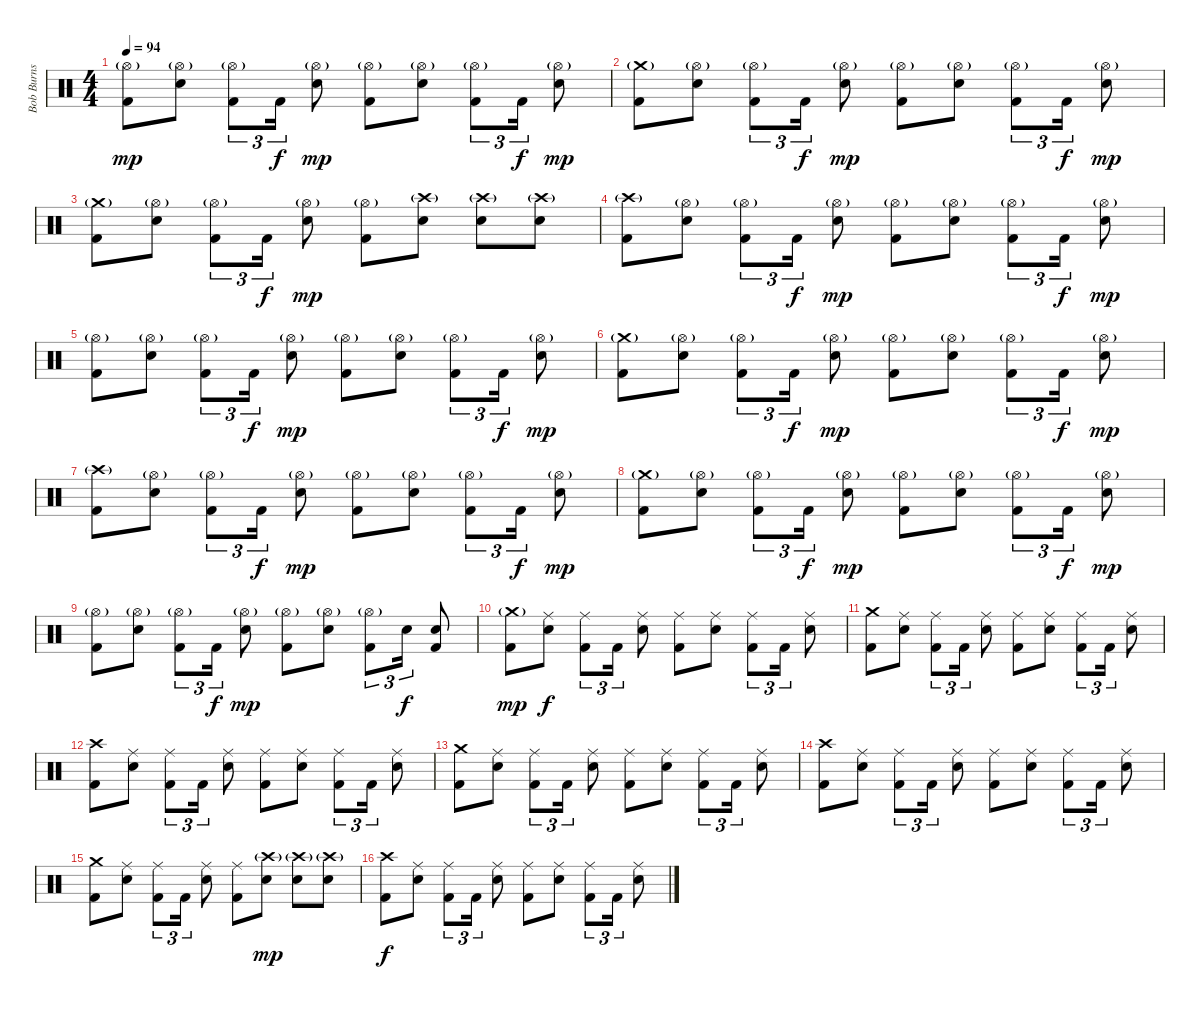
\track ("Bob Burns (drums)" "Bob Burns ") {instrument percussion}
\staff {score}
\articulation defaults
\ts (4 4)
\tempo 94
\clef neutral
\ks c
("Hi-Hat (open)"{g} "Kick (hit) 2").8{dy mp} ("Hi-Hat (open)"{g} "Electric Snare (hit)").8 ("Hi-Hat (open)"{g} "Kick (hit) 2").8{tu (3 2)} "Kick (hit) 2".16{tu (3 2) dy f} ("Hi-Hat (open)"{g} "Electric Snare (hit)").8{dy mp} ("Hi-Hat (open)"{g} "Kick (hit) 2").8 ("Hi-Hat (open)"{g} "Electric Snare (hit)").8 ("Hi-Hat (open)"{g} "Kick (hit) 2").8{tu (3 2)} "Kick (hit) 2".16{tu (3 2) dy f} ("Hi-Hat (open)"{g} "Electric Snare (hit)").8{dy mp} |
("Crash medium (hit)"{g} "Kick (hit) 2").8 ("Hi-Hat (open)"{g} "Electric Snare (hit)").8 ("Hi-Hat (open)"{g} "Kick (hit) 2").8{tu (3 2)} "Kick (hit) 2".16{tu (3 2) dy f} ("Hi-Hat (open)"{g} "Electric Snare (hit)").8{dy mp} ("Hi-Hat (open)"{g} "Kick (hit) 2").8 ("Hi-Hat (open)"{g} "Electric Snare (hit)").8 ("Hi-Hat (open)"{g} "Kick (hit) 2").8{tu (3 2)} "Kick (hit) 2".16{tu (3 2) dy f} ("Hi-Hat (open)"{g} "Electric Snare (hit)").8{dy mp} |
("Crash medium (hit)"{g} "Kick (hit) 2").8 ("Hi-Hat (open)"{g} "Electric Snare (hit)").8 ("Hi-Hat (open)"{g} "Kick (hit) 2").8{tu (3 2)} "Kick (hit) 2".16{tu (3 2) dy f} ("Hi-Hat (open)"{g} "Electric Snare (hit)").8{dy mp} ("Hi-Hat (open)"{g} "Kick (hit) 2").8 ("Crash high (hit)"{g} "Electric Snare (hit)").8 ("Crash high (hit)"{g} "Electric Snare (hit)").8 ("Crash high (hit)"{g} "Electric Snare (hit)").8 |
("Crash high (hit)"{g} "Kick (hit) 2").8 ("Hi-Hat (open)"{g} "Electric Snare (hit)").8 ("Hi-Hat (open)"{g} "Kick (hit) 2").8{tu (3 2)} "Kick (hit) 2".16{tu (3 2) dy f} ("Hi-Hat (open)"{g} "Electric Snare (hit)").8{dy mp} ("Hi-Hat (open)"{g} "Kick (hit) 2").8 ("Hi-Hat (open)"{g} "Electric Snare (hit)").8 ("Hi-Hat (open)"{g} "Kick (hit) 2").8{tu (3 2)} "Kick (hit) 2".16{tu (3 2) dy f} ("Hi-Hat (open)"{g} "Electric Snare (hit)").8{dy mp} |
("Hi-Hat (open)"{g} "Kick (hit) 2").8 ("Hi-Hat (open)"{g} "Electric Snare (hit)").8 ("Hi-Hat (open)"{g} "Kick (hit) 2").8{tu (3 2)} "Kick (hit) 2".16{tu (3 2) dy f} ("Hi-Hat (open)"{g} "Electric Snare (hit)").8{dy mp} ("Hi-Hat (open)"{g} "Kick (hit) 2").8 ("Hi-Hat (open)"{g} "Electric Snare (hit)").8 ("Hi-Hat (open)"{g} "Kick (hit) 2").8{tu (3 2)} "Kick (hit) 2".16{tu (3 2) dy f} ("Hi-Hat (open)"{g} "Electric Snare (hit)").8{dy mp} |
("Crash medium (hit)"{g} "Kick (hit) 2").8 ("Hi-Hat (open)"{g} "Electric Snare (hit)").8 ("Hi-Hat (open)"{g} "Kick (hit) 2").8{tu (3 2)} "Kick (hit) 2".16{tu (3 2) dy f} ("Hi-Hat (open)"{g} "Electric Snare (hit)").8{dy mp} ("Hi-Hat (open)"{g} "Kick (hit) 2").8 ("Hi-Hat (open)"{g} "Electric Snare (hit)").8 ("Hi-Hat (open)"{g} "Kick (hit) 2").8{tu (3 2)} "Kick (hit) 2".16{tu (3 2) dy f} ("Hi-Hat (open)"{g} "Electric Snare (hit)").8{dy mp} |
("Crash high (hit)"{g} "Kick (hit) 2").8 ("Hi-Hat (open)"{g} "Electric Snare (hit)").8 ("Hi-Hat (open)"{g} "Kick (hit) 2").8{tu (3 2)} "Kick (hit) 2".16{tu (3 2) dy f} ("Hi-Hat (open)"{g} "Electric Snare (hit)").8{dy mp} ("Hi-Hat (open)"{g} "Kick (hit) 2").8 ("Hi-Hat (open)"{g} "Electric Snare (hit)").8 ("Hi-Hat (open)"{g} "Kick (hit) 2").8{tu (3 2)} "Kick (hit) 2".16{tu (3 2) dy f} ("Hi-Hat (open)"{g} "Electric Snare (hit)").8{dy mp} |
("Crash medium (hit)"{g} "Kick (hit) 2").8 ("Hi-Hat (open)"{g} "Electric Snare (hit)").8 ("Hi-Hat (open)"{g} "Kick (hit) 2").8{tu (3 2)} "Kick (hit) 2".16{tu (3 2) dy f} ("Hi-Hat (open)"{g} "Electric Snare (hit)").8{dy mp} ("Hi-Hat (open)"{g} "Kick (hit) 2").8 ("Hi-Hat (open)"{g} "Electric Snare (hit)").8 ("Hi-Hat (open)"{g} "Kick (hit) 2").8{tu (3 2)} "Kick (hit) 2".16{tu (3 2) dy f} ("Hi-Hat (open)"{g} "Electric Snare (hit)").8{dy mp} |
("Hi-Hat (open)"{g} "Kick (hit) 2").8 ("Hi-Hat (open)"{g} "Electric Snare (hit)").8 ("Hi-Hat (open)"{g} "Kick (hit) 2").8{tu (3 2)} "Kick (hit) 2".16{tu (3 2) dy f} ("Hi-Hat (open)"{g} "Electric Snare (hit)").8{dy mp} ("Hi-Hat (open)"{g} "Kick (hit) 2").8 ("Hi-Hat (open)"{g} "Electric Snare (hit)").8 ("Hi-Hat (open)"{g} "Kick (hit) 2").8{tu (3 2)} "Electric Snare (hit)".16{tu (3 2) dy f} ("Electric Snare (hit)" "Kick (hit) 2").8 |
("Crash medium (hit)"{g} "Kick (hit) 2").8{dy mp} ("Ride (middle)" "Electric Snare (hit)").8{dy f} ("Ride (middle)" "Kick (hit) 2").8{tu (3 2)} "Kick (hit) 2".16{tu (3 2)} ("Ride (middle)" "Electric Snare (hit)").8 ("Ride (middle)" "Kick (hit) 2").8 ("Ride (middle)" "Electric Snare (hit)").8 ("Ride (middle)" "Kick (hit) 2").8{tu (3 2)} "Kick (hit) 2".16{tu (3 2)} ("Ride (middle)" "Electric Snare (hit)").8 |
("Crash medium (hit)" "Kick (hit) 2").8 ("Ride (middle)" "Electric Snare (hit)").8 ("Ride (middle)" "Kick (hit) 2").8{tu (3 2)} "Kick (hit) 2".16{tu (3 2)} ("Ride (middle)" "Electric Snare (hit)").8 ("Ride (middle)" "Kick (hit) 2").8 ("Ride (middle)" "Electric Snare (hit)").8 ("Ride (middle)" "Kick (hit) 2").8{tu (3 2)} "Kick (hit) 2".16{tu (3 2)} ("Ride (middle)" "Electric Snare (hit)").8 |
("Crash high (hit)" "Kick (hit) 2").8 ("Ride (middle)" "Electric Snare (hit)").8 ("Ride (middle)" "Kick (hit) 2").8{tu (3 2)} "Kick (hit) 2".16{tu (3 2)} ("Ride (middle)" "Electric Snare (hit)").8 ("Ride (middle)" "Kick (hit) 2").8 ("Ride (middle)" "Electric Snare (hit)").8 ("Ride (middle)" "Kick (hit) 2").8{tu (3 2)} "Kick (hit) 2".16{tu (3 2)} ("Ride (middle)" "Electric Snare (hit)").8 |
("Crash medium (hit)" "Kick (hit) 2").8 ("Ride (middle)" "Electric Snare (hit)").8 ("Ride (middle)" "Kick (hit) 2").8{tu (3 2)} "Kick (hit) 2".16{tu (3 2)} ("Ride (middle)" "Electric Snare (hit)").8 ("Ride (middle)" "Kick (hit) 2").8 ("Ride (middle)" "Electric Snare (hit)").8 ("Ride (middle)" "Kick (hit) 2").8{tu (3 2)} "Kick (hit) 2".16{tu (3 2)} ("Ride (middle)" "Electric Snare (hit)").8 |
("Crash high (hit)" "Kick (hit) 2").8 ("Ride (middle)" "Electric Snare (hit)").8 ("Ride (middle)" "Kick (hit) 2").8{tu (3 2)} "Kick (hit) 2".16{tu (3 2)} ("Ride (middle)" "Electric Snare (hit)").8 ("Ride (middle)" "Kick (hit) 2").8 ("Ride (middle)" "Electric Snare (hit)").8 ("Ride (middle)" "Kick (hit) 2").8{tu (3 2)} "Kick (hit) 2".16{tu (3 2)} ("Ride (middle)" "Electric Snare (hit)").8 |
("Crash medium (hit)" "Kick (hit) 2").8 ("Ride (middle)" "Electric Snare (hit)").8 ("Ride (middle)" "Kick (hit) 2").8{tu (3 2)} "Kick (hit) 2".16{tu (3 2)} ("Ride (middle)" "Electric Snare (hit)").8 ("Ride (middle)" "Kick (hit) 2").8 ("Crash high (hit)"{g} "Electric Snare (hit)").8{dy mp} ("Crash high (hit)"{g} "Electric Snare (hit)").8 ("Crash high (hit)"{g} "Electric Snare (hit)").8 |
("Crash high (hit)" "Kick (hit) 2").8{dy f} ("Ride (middle)" "Electric Snare (hit)").8 ("Ride (middle)" "Kick (hit) 2").8{tu (3 2)} "Kick (hit) 2".16{tu (3 2)} ("Ride (middle)" "Electric Snare (hit)").8 ("Ride (middle)" "Kick (hit) 2").8 ("Ride (middle)" "Electric Snare (hit)").8 ("Ride (middle)" "Kick (hit) 2").8{tu (3 2)} "Kick (hit) 2".16{tu (3 2)} ("Ride (middle)" "Electric Snare (hit)").8
